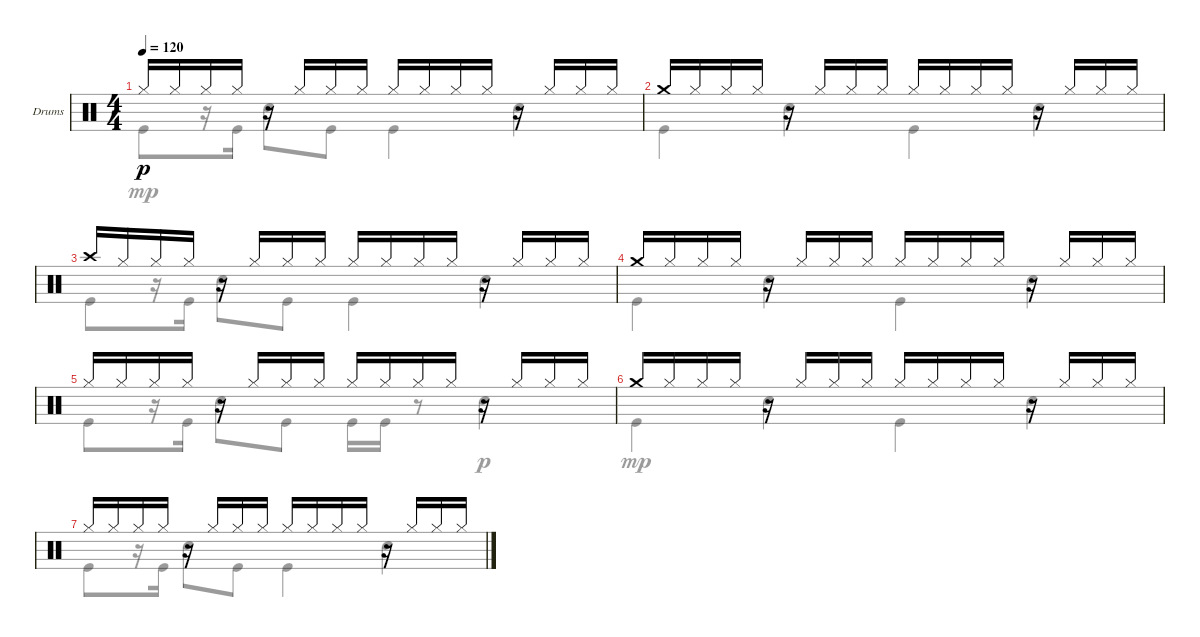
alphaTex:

\bracketExtendMode groupsimilarinstruments
\firstSystemTrackNameOrientation horizontal
\otherSystemsTrackNameOrientation horizontal
\track ("Drumkit" "Drums") {instrument percussion}
\staff {score}
\articulation defaults
\voice
\ts (4 4)
\tempo 120
\clef neutral
\ks c "Hi-Hat (closed)".16{dy p} "Hi-Hat (closed)".16 "Hi-Hat (closed)".16 "Hi-Hat (closed)".16
r.16 "Hi-Hat (closed)".16 "Hi-Hat (closed)".16 "Hi-Hat (closed)".16 "Hi-Hat (closed)".16 "Hi-Hat (closed)".16 "Hi-Hat (closed)".16 "Hi-Hat (closed)".16 r.16 "Hi-Hat (closed)".16 "Hi-Hat (closed)".16 "Hi-Hat (closed)".16 |
"Crash medium (hit)".16 "Hi-Hat (closed)".16 "Hi-Hat (closed)".16 "Hi-Hat (closed)".16 r.16 "Hi-Hat (closed)".16 "Hi-Hat (closed)".16 "Hi-Hat (closed)".16 "Hi-Hat (closed)".16 "Hi-Hat (closed)".16 "Hi-Hat (closed)".16 "Hi-Hat (closed)".16 r.16 "Hi-Hat (closed)".16 "Hi-Hat (closed)".16 "Hi-Hat (closed)".16 |
"Crash high (hit)".16 "Hi-Hat (closed)".16 "Hi-Hat (closed)".16 "Hi-Hat (closed)".16 r.16 "Hi-Hat (closed)".16 "Hi-Hat (closed)".16 "Hi-Hat (closed)".16 "Hi-Hat (closed)".16 "Hi-Hat (closed)".16 "Hi-Hat (closed)".16 "Hi-Hat (closed)".16 r.16 "Hi-Hat (closed)".16 "Hi-Hat (closed)".16 "Hi-Hat (closed)".16 |
"Crash medium (hit)".16 "Hi-Hat (closed)".16 "Hi-Hat (closed)".16 "Hi-Hat (closed)".16 r.16 "Hi-Hat (closed)".16 "Hi-Hat (closed)".16 "Hi-Hat (closed)".16 "Hi-Hat (closed)".16 "Hi-Hat (closed)".16 "Hi-Hat (closed)".16 "Hi-Hat (closed)".16 r.16 "Hi-Hat (closed)".16 "Hi-Hat (closed)".16 "Hi-Hat (closed)".16 |
"Hi-Hat (closed)".16 "Hi-Hat (closed)".16 "Hi-Hat (closed)".16 "Hi-Hat (closed)".16 r.16 "Hi-Hat (closed)".16 "Hi-Hat (closed)".16 "Hi-Hat (closed)".16 "Hi-Hat (closed)".16 "Hi-Hat (closed)".16 "Hi-Hat (closed)".16 "Hi-Hat (closed)".16 r.16 "Hi-Hat (closed)".16 "Hi-Hat (closed)".16 "Hi-Hat (closed)".16 |
"Crash medium (hit)".16 "Hi-Hat (closed)".16 "Hi-Hat (closed)".16 "Hi-Hat (closed)".16 r.16 "Hi-Hat (closed)".16 "Hi-Hat (closed)".16 "Hi-Hat (closed)".16 "Hi-Hat (closed)".16 "Hi-Hat (closed)".16 "Hi-Hat (closed)".16 "Hi-Hat (closed)".16 r.16 "Hi-Hat (closed)".16 "Hi-Hat (closed)".16 "Hi-Hat (closed)".16 |
"Hi-Hat (closed)".16 "Hi-Hat (closed)".16 "Hi-Hat (closed)".16 "Hi-Hat (closed)".16 r.16 "Hi-Hat (closed)".16 "Hi-Hat (closed)".16 "Hi-Hat (closed)".16 "Hi-Hat (closed)".16 "Hi-Hat (closed)".16 "Hi-Hat (closed)".16 "Hi-Hat (closed)".16 r.16 "Hi-Hat (closed)".16 "Hi-Hat (closed)".16 "Hi-Hat (closed)".16
\voice
\clef neutral
\ottava regular
\simile none
\ks c "Kick (hit)".8{dy mp}
r.16 "Kick (hit)".16 "Snare (hit) 2".8 "Kick (hit)".8 "Kick (hit)".4 "Snare (hit) 2".4 |
"Kick (hit)".4 "Snare (hit) 2".4 "Kick (hit)".4 "Snare (hit) 2".4 |
"Kick (hit)".8 r.16 "Kick (hit)".16 "Snare (hit) 2".8 "Kick (hit)".8 "Kick (hit)".4 "Snare (hit) 2".4 |
"Kick (hit)".4 "Snare (hit) 2".4 "Kick (hit)".4 "Snare (hit) 2".4 |
"Kick (hit)".8 r.16 "Kick (hit)".16 "Snare (hit) 2".8 "Kick (hit)".8 "Kick (hit)".16 "Kick (hit)".16 r.8 "Snare (hit) 2".4{dy p} |
"Kick (hit)".4{dy mp} "Snare (hit) 2".4 "Kick (hit)".4 "Snare (hit) 2".4 |
"Kick (hit)".8 r.16 "Kick (hit)".16 "Snare (hit) 2".8 "Kick (hit)".8 "Kick (hit)".4 "Snare (hit) 2".4
